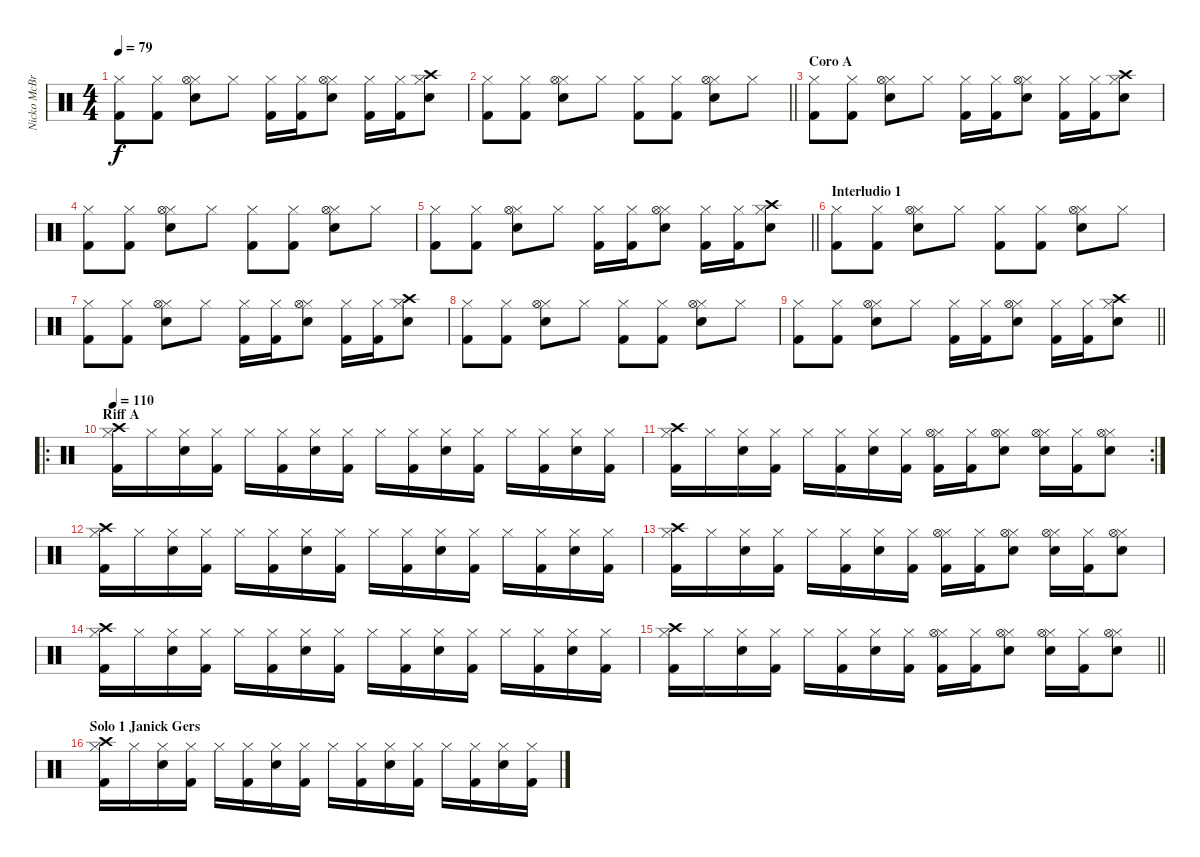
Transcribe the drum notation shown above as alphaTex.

\track ("Nicko McBrain" "Nicko McBr") {instrument percussion}
\staff {score}
\articulation defaults
\ts (4 4)
\tempo 79
\clef neutral
\ks c
("Kick (hit) 2" "Hi-Hat (closed)").8{dy f} ("Kick (hit) 2" "Hi-Hat (closed)").8 ("Snare (hit) 2" "Hi-Hat (closed)" "Hi-Hat (open)").8 "Hi-Hat (closed)".8 ("Kick (hit) 2" "Hi-Hat (closed)").16 ("Kick (hit) 2" "Hi-Hat (closed)").16 ("Snare (hit) 2" "Hi-Hat (closed)" "Hi-Hat (open)").8 ("Kick (hit) 2" "Hi-Hat (closed)").16 ("Kick (hit) 2" "Hi-Hat (closed)").16 ("Snare (hit) 2" "Hi-Hat (closed)" "Crash high (hit)").8 |
\barLineRight lightlight
("Kick (hit) 2" "Hi-Hat (closed)").8 ("Kick (hit) 2" "Hi-Hat (closed)").8 ("Snare (hit) 2" "Hi-Hat (closed)" "Hi-Hat (open)").8 "Hi-Hat (closed)".8 ("Kick (hit) 2" "Hi-Hat (closed)").8 ("Kick (hit) 2" "Hi-Hat (closed)").8 ("Snare (hit) 2" "Hi-Hat (closed)" "Hi-Hat (open)").8 "Hi-Hat (closed)".8 |
\section ("" "Coro A")
("Kick (hit) 2" "Hi-Hat (closed)").8 ("Kick (hit) 2" "Hi-Hat (closed)").8 ("Snare (hit) 2" "Hi-Hat (closed)" "Hi-Hat (open)").8 "Hi-Hat (closed)".8 ("Kick (hit) 2" "Hi-Hat (closed)").16 ("Kick (hit) 2" "Hi-Hat (closed)").16 ("Snare (hit) 2" "Hi-Hat (closed)" "Hi-Hat (open)").8 ("Kick (hit) 2" "Hi-Hat (closed)").16 ("Kick (hit) 2" "Hi-Hat (closed)").16 ("Snare (hit) 2" "Hi-Hat (closed)" "Crash high (hit)").8 |
("Kick (hit) 2" "Hi-Hat (closed)").8 ("Kick (hit) 2" "Hi-Hat (closed)").8 ("Snare (hit) 2" "Hi-Hat (closed)" "Hi-Hat (open)").8 "Hi-Hat (closed)".8 ("Kick (hit) 2" "Hi-Hat (closed)").8 ("Kick (hit) 2" "Hi-Hat (closed)").8 ("Snare (hit) 2" "Hi-Hat (closed)" "Hi-Hat (open)").8 "Hi-Hat (closed)".8 |
\barLineRight lightlight
("Kick (hit) 2" "Hi-Hat (closed)").8 ("Kick (hit) 2" "Hi-Hat (closed)").8 ("Snare (hit) 2" "Hi-Hat (closed)" "Hi-Hat (open)").8 "Hi-Hat (closed)".8 ("Kick (hit) 2" "Hi-Hat (closed)").16 ("Kick (hit) 2" "Hi-Hat (closed)").16 ("Snare (hit) 2" "Hi-Hat (closed)" "Hi-Hat (open)").8 ("Kick (hit) 2" "Hi-Hat (closed)").16 ("Kick (hit) 2" "Hi-Hat (closed)").16 ("Snare (hit) 2" "Hi-Hat (closed)" "Crash high (hit)").8 |
\section ("" "Interludio 1")
("Kick (hit) 2" "Hi-Hat (closed)").8 ("Kick (hit) 2" "Hi-Hat (closed)").8 ("Snare (hit) 2" "Hi-Hat (closed)" "Hi-Hat (open)").8 "Hi-Hat (closed)".8 ("Kick (hit) 2" "Hi-Hat (closed)").8 ("Kick (hit) 2" "Hi-Hat (closed)").8 ("Snare (hit) 2" "Hi-Hat (closed)" "Hi-Hat (open)").8 "Hi-Hat (closed)".8 |
("Kick (hit) 2" "Hi-Hat (closed)").8 ("Kick (hit) 2" "Hi-Hat (closed)").8 ("Snare (hit) 2" "Hi-Hat (closed)" "Hi-Hat (open)").8 "Hi-Hat (closed)".8 ("Kick (hit) 2" "Hi-Hat (closed)").16 ("Kick (hit) 2" "Hi-Hat (closed)").16 ("Snare (hit) 2" "Hi-Hat (closed)" "Hi-Hat (open)").8 ("Kick (hit) 2" "Hi-Hat (closed)").16 ("Kick (hit) 2" "Hi-Hat (closed)").16 ("Snare (hit) 2" "Hi-Hat (closed)" "Crash high (hit)").8 |
("Kick (hit) 2" "Hi-Hat (closed)").8 ("Kick (hit) 2" "Hi-Hat (closed)").8 ("Snare (hit) 2" "Hi-Hat (closed)" "Hi-Hat (open)").8 "Hi-Hat (closed)".8 ("Kick (hit) 2" "Hi-Hat (closed)").8 ("Kick (hit) 2" "Hi-Hat (closed)").8 ("Snare (hit) 2" "Hi-Hat (closed)" "Hi-Hat (open)").8 "Hi-Hat (closed)".8 |
\barLineRight lightlight
("Kick (hit) 2" "Hi-Hat (closed)").8 ("Kick (hit) 2" "Hi-Hat (closed)").8 ("Snare (hit) 2" "Hi-Hat (closed)" "Hi-Hat (open)").8 "Hi-Hat (closed)".8 ("Kick (hit) 2" "Hi-Hat (closed)").16 ("Kick (hit) 2" "Hi-Hat (closed)").16 ("Snare (hit) 2" "Hi-Hat (closed)" "Hi-Hat (open)").8 ("Kick (hit) 2" "Hi-Hat (closed)").16 ("Kick (hit) 2" "Hi-Hat (closed)").16 ("Snare (hit) 2" "Hi-Hat (closed)" "Crash high (hit)").8 |
\ro
\section ("" "Riff A")
\tempo 110
("Kick (hit) 2" "Hi-Hat (closed)" "Crash high (hit)").16 "Hi-Hat (closed)".16 ("Snare (hit) 2" "Hi-Hat (closed)").16 ("Kick (hit) 2" "Hi-Hat (closed)").16 "Hi-Hat (closed)".16 ("Kick (hit) 2" "Hi-Hat (closed)").16 ("Snare (hit) 2" "Hi-Hat (closed)").16 ("Kick (hit) 2" "Hi-Hat (closed)").16 "Hi-Hat (closed)".16 ("Kick (hit) 2" "Hi-Hat (closed)").16 ("Snare (hit) 2" "Hi-Hat (closed)").16 ("Kick (hit) 2" "Hi-Hat (closed)").16 "Hi-Hat (closed)".16 ("Kick (hit) 2" "Hi-Hat (closed)").16 ("Snare (hit) 2" "Hi-Hat (closed)").16 ("Kick (hit) 2" "Hi-Hat (closed)").16 |
\rc 2
("Kick (hit) 2" "Hi-Hat (closed)" "Crash high (hit)").16 "Hi-Hat (closed)".16 ("Snare (hit) 2" "Hi-Hat (closed)").16 ("Kick (hit) 2" "Hi-Hat (closed)").16 "Hi-Hat (closed)".16 ("Kick (hit) 2" "Hi-Hat (closed)").16 ("Snare (hit) 2" "Hi-Hat (closed)").16 ("Kick (hit) 2" "Hi-Hat (closed)").16 ("Kick (hit) 2" "Hi-Hat (closed)" "Hi-Hat (open)").16 ("Kick (hit) 2" "Hi-Hat (closed)").16 ("Snare (hit) 2" "Hi-Hat (closed)" "Hi-Hat (open)").8 ("Snare (hit) 2" "Hi-Hat (closed)" "Hi-Hat (open)").16 ("Kick (hit) 2" "Hi-Hat (closed)").16 ("Snare (hit) 2" "Hi-Hat (closed)" "Hi-Hat (open)").8 |
("Kick (hit) 2" "Hi-Hat (closed)" "Crash high (hit)").16 "Hi-Hat (closed)".16 ("Snare (hit) 2" "Hi-Hat (closed)").16 ("Kick (hit) 2" "Hi-Hat (closed)").16 "Hi-Hat (closed)".16 ("Kick (hit) 2" "Hi-Hat (closed)").16 ("Snare (hit) 2" "Hi-Hat (closed)").16 ("Kick (hit) 2" "Hi-Hat (closed)").16 "Hi-Hat (closed)".16 ("Kick (hit) 2" "Hi-Hat (closed)").16 ("Snare (hit) 2" "Hi-Hat (closed)").16 ("Kick (hit) 2" "Hi-Hat (closed)").16 "Hi-Hat (closed)".16 ("Kick (hit) 2" "Hi-Hat (closed)").16 ("Snare (hit) 2" "Hi-Hat (closed)").16 ("Kick (hit) 2" "Hi-Hat (closed)").16 |
("Kick (hit) 2" "Hi-Hat (closed)" "Crash high (hit)").16 "Hi-Hat (closed)".16 ("Snare (hit) 2" "Hi-Hat (closed)").16 ("Kick (hit) 2" "Hi-Hat (closed)").16 "Hi-Hat (closed)".16 ("Kick (hit) 2" "Hi-Hat (closed)").16 ("Snare (hit) 2" "Hi-Hat (closed)").16 ("Kick (hit) 2" "Hi-Hat (closed)").16 ("Kick (hit) 2" "Hi-Hat (closed)" "Hi-Hat (open)").16 ("Kick (hit) 2" "Hi-Hat (closed)").16 ("Snare (hit) 2" "Hi-Hat (closed)" "Hi-Hat (open)").8 ("Snare (hit) 2" "Hi-Hat (closed)" "Hi-Hat (open)").16 ("Kick (hit) 2" "Hi-Hat (closed)").16 ("Snare (hit) 2" "Hi-Hat (closed)" "Hi-Hat (open)").8 |
("Kick (hit) 2" "Hi-Hat (closed)" "Crash high (hit)").16 "Hi-Hat (closed)".16 ("Snare (hit) 2" "Hi-Hat (closed)").16 ("Kick (hit) 2" "Hi-Hat (closed)").16 "Hi-Hat (closed)".16 ("Kick (hit) 2" "Hi-Hat (closed)").16 ("Snare (hit) 2" "Hi-Hat (closed)").16 ("Kick (hit) 2" "Hi-Hat (closed)").16 "Hi-Hat (closed)".16 ("Kick (hit) 2" "Hi-Hat (closed)").16 ("Snare (hit) 2" "Hi-Hat (closed)").16 ("Kick (hit) 2" "Hi-Hat (closed)").16 "Hi-Hat (closed)".16 ("Kick (hit) 2" "Hi-Hat (closed)").16 ("Snare (hit) 2" "Hi-Hat (closed)").16 ("Kick (hit) 2" "Hi-Hat (closed)").16 |
\barLineRight lightlight
("Kick (hit) 2" "Hi-Hat (closed)" "Crash high (hit)").16 "Hi-Hat (closed)".16 ("Snare (hit) 2" "Hi-Hat (closed)").16 ("Kick (hit) 2" "Hi-Hat (closed)").16 "Hi-Hat (closed)".16 ("Kick (hit) 2" "Hi-Hat (closed)").16 ("Snare (hit) 2" "Hi-Hat (closed)").16 ("Kick (hit) 2" "Hi-Hat (closed)").16 ("Kick (hit) 2" "Hi-Hat (closed)" "Hi-Hat (open)").16 ("Kick (hit) 2" "Hi-Hat (closed)").16 ("Snare (hit) 2" "Hi-Hat (closed)" "Hi-Hat (open)").8 ("Snare (hit) 2" "Hi-Hat (closed)" "Hi-Hat (open)").16 ("Kick (hit) 2" "Hi-Hat (closed)").16 ("Snare (hit) 2" "Hi-Hat (closed)" "Hi-Hat (open)").8 |
\section ("" "Solo 1 Janick Gers")
("Kick (hit) 2" "Hi-Hat (closed)" "Crash high (hit)").16 "Hi-Hat (closed)".16 ("Snare (hit) 2" "Hi-Hat (closed)").16 ("Kick (hit) 2" "Hi-Hat (closed)").16 "Hi-Hat (closed)".16 ("Kick (hit) 2" "Hi-Hat (closed)").16 ("Snare (hit) 2" "Hi-Hat (closed)").16 ("Kick (hit) 2" "Hi-Hat (closed)").16 "Hi-Hat (closed)".16 ("Kick (hit) 2" "Hi-Hat (closed)").16 ("Snare (hit) 2" "Hi-Hat (closed)").16 ("Kick (hit) 2" "Hi-Hat (closed)").16 "Hi-Hat (closed)".16 ("Kick (hit) 2" "Hi-Hat (closed)").16 ("Snare (hit) 2" "Hi-Hat (closed)").16 ("Kick (hit) 2" "Hi-Hat (closed)").16
